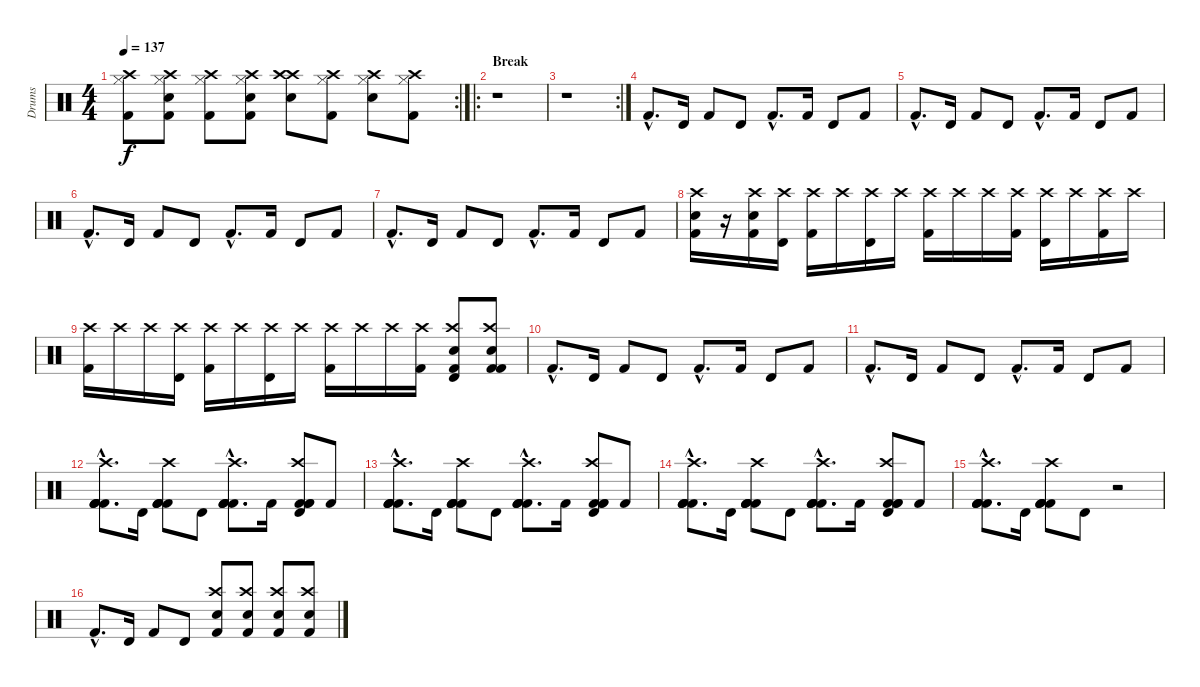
\track ("Drums" "Drums") {instrument percussion}
\staff {score}
\articulation defaults
\rc 2
\ts (4 4)
\tempo 137
\clef neutral
\ks c
("Kick (hit) 2" "Crash high (hit)" "Hi-Hat (closed)").8{dy f} ("Kick (hit) 2" "Crash high (hit)" "Snare (hit) 2" "Hi-Hat (closed)").8 ("Kick (hit) 2" "Crash high (hit)" "Hi-Hat (closed)").8 ("Kick (hit) 2" "Crash high (hit)" "Snare (hit) 2" "Hi-Hat (closed)").8 ("Crash high (hit)" "Crash high (hit)" "Snare (hit) 2").8 ("Kick (hit) 2" "Crash high (hit)" "Hi-Hat (closed)").8 ("Crash high (hit)" "Snare (hit) 2" "Hi-Hat (closed)").8 ("Kick (hit) 2" "Crash high (hit)" "Hi-Hat (closed)").8 |
\ro
\section ("" "Break")
r.1 |
\rc 2
r.1 |
"Kick (hit) 2"{hac}.8{d} "Timbale high (hit)".16 "Kick (hit) 2".8 "Timbale high (hit)".8 "Kick (hit) 2"{hac}.8{d} "Kick (hit) 2".16 "Timbale high (hit)".8 "Kick (hit) 2".8 |
"Kick (hit) 2"{hac}.8{d} "Timbale high (hit)".16 "Kick (hit) 2".8 "Timbale high (hit)".8 "Kick (hit) 2"{hac}.8{d} "Kick (hit) 2".16 "Timbale high (hit)".8 "Kick (hit) 2".8 |
"Kick (hit) 2"{hac}.8{d} "Timbale high (hit)".16 "Kick (hit) 2".8 "Timbale high (hit)".8 "Kick (hit) 2"{hac}.8{d} "Kick (hit) 2".16 "Timbale high (hit)".8 "Kick (hit) 2".8 |
"Kick (hit) 2"{hac}.8{d} "Timbale high (hit)".16 "Kick (hit) 2".8 "Timbale high (hit)".8 "Kick (hit) 2"{hac}.8{d} "Kick (hit) 2".16 "Timbale high (hit)".8 "Kick (hit) 2".8 |
("Crash high (hit)" "Snare (hit) 2" "Kick (hit) 2").16 r.16 ("Crash high (hit)" "Snare (hit) 2" "Kick (hit) 2").16 ("Crash high (hit)"{tr (49 64)} "Timbale high (hit)").16 ("Crash high (hit)"{tr (49 64)} "Kick (hit) 2").16 "Crash high (hit)"{tr (49 64)}.16 ("Crash high (hit)"{tr (49 64)} "Timbale high (hit)").16 "Crash high (hit)"{tr (49 64)}.16 ("Crash high (hit)"{tr (49 64)} "Kick (hit) 2").16 "Crash high (hit)"{tr (49 64)}.16 "Crash high (hit)"{tr (49 64)}.16 ("Crash high (hit)"{tr (49 64)} "Kick (hit) 2").16 ("Crash high (hit)"{tr (49 64)} "Timbale high (hit)").16 "Crash high (hit)"{tr (49 64)}.16 ("Crash high (hit)"{tr (49 64)} "Kick (hit) 2").16 "Crash high (hit)"{tr (49 64)}.16 |
("Crash high (hit)"{tr (49 64)} "Kick (hit) 2").16 "Crash high (hit)"{tr (49 64)}.16 "Crash high (hit)"{tr (49 64)}.16 ("Crash high (hit)"{tr (49 64)} "Timbale high (hit)").16 ("Crash high (hit)"{tr (49 64)} "Kick (hit) 2").16 "Crash high (hit)"{tr (49 64)}.16 ("Crash high (hit)"{tr (49 64)} "Timbale high (hit)").16 "Crash high (hit)"{tr (49 64)}.16 ("Crash high (hit)"{tr (49 64)} "Kick (hit) 2").16 "Crash high (hit)"{tr (49 64)}.16 "Crash high (hit)"{tr (49 64)}.16 ("Crash high (hit)"{tr (49 64)} "Kick (hit) 2").16 ("Crash high (hit)" "Kick (hit) 2" "Timbale high (hit)" "Snare (hit) 2").8 ("Crash high (hit)" "Kick (hit) 2" "Kick (hit) 2" "Snare (hit) 2").8 |
"Kick (hit) 2"{hac}.8{d} "Timbale high (hit)".16 "Kick (hit) 2".8 "Timbale high (hit)".8 "Kick (hit) 2"{hac}.8{d} "Kick (hit) 2".16 "Timbale high (hit)".8 "Kick (hit) 2".8 |
"Kick (hit) 2"{hac}.8{d} "Timbale high (hit)".16 "Kick (hit) 2".8 "Timbale high (hit)".8 "Kick (hit) 2"{hac}.8{d} "Kick (hit) 2".16 "Timbale high (hit)".8 "Kick (hit) 2".8 |
("Crash high (hit)"{hac} "Kick (hit) 2"{hac} "Kick (hit) 2"{hac} "Kick (hit) 2"{hac} "Kick (hit) 2"{hac}).8{d} "Timbale high (hit)".16 ("Crash high (hit)" "Kick (hit) 2" "Kick (hit) 2" "Kick (hit) 2" "Kick (hit) 2").8 "Timbale high (hit)".8 ("Crash high (hit)"{hac} "Kick (hit) 2"{hac} "Kick (hit) 2"{hac} "Kick (hit) 2"{hac} "Kick (hit) 2"{hac}).8{d} "Kick (hit) 2".16 ("Crash high (hit)" "Kick (hit) 2" "Timbale high (hit)" "Kick (hit) 2" "Kick (hit) 2").8 "Kick (hit) 2".8 |
("Crash high (hit)"{hac} "Kick (hit) 2"{hac} "Kick (hit) 2"{hac} "Kick (hit) 2"{hac} "Kick (hit) 2"{hac}).8{d} "Timbale high (hit)".16 ("Crash high (hit)" "Kick (hit) 2" "Kick (hit) 2" "Kick (hit) 2" "Kick (hit) 2").8 "Timbale high (hit)".8 ("Crash high (hit)"{hac} "Kick (hit) 2"{hac} "Kick (hit) 2"{hac} "Kick (hit) 2"{hac} "Kick (hit) 2"{hac}).8{d} "Kick (hit) 2".16 ("Crash high (hit)" "Kick (hit) 2" "Timbale high (hit)" "Kick (hit) 2" "Kick (hit) 2").8 "Kick (hit) 2".8 |
("Crash high (hit)"{hac} "Kick (hit) 2"{hac} "Kick (hit) 2"{hac} "Kick (hit) 2"{hac} "Kick (hit) 2"{hac}).8{d} "Timbale high (hit)".16 ("Crash high (hit)" "Kick (hit) 2" "Kick (hit) 2" "Kick (hit) 2" "Kick (hit) 2").8 "Timbale high (hit)".8 ("Crash high (hit)"{hac} "Kick (hit) 2"{hac} "Kick (hit) 2"{hac} "Kick (hit) 2"{hac} "Kick (hit) 2"{hac}).8{d} "Kick (hit) 2".16 ("Crash high (hit)" "Kick (hit) 2" "Timbale high (hit)" "Kick (hit) 2" "Kick (hit) 2").8 "Kick (hit) 2".8 |
("Crash high (hit)"{hac} "Kick (hit) 2"{hac} "Kick (hit) 2"{hac} "Kick (hit) 2"{hac} "Kick (hit) 2"{hac}).8{d} "Timbale high (hit)".16 ("Crash high (hit)" "Kick (hit) 2" "Kick (hit) 2" "Kick (hit) 2" "Kick (hit) 2").8 "Timbale high (hit)".8 r.2 |
"Kick (hit) 2"{hac}.8{d} "Timbale high (hit)".16 "Kick (hit) 2".8 "Timbale high (hit)".8 ("Snare (hit) 2" "Kick (hit) 2" "Crash high (hit)").8 ("Snare (hit) 2" "Kick (hit) 2" "Crash high (hit)").8 ("Snare (hit) 2" "Kick (hit) 2" "Crash high (hit)").8 ("Snare (hit) 2" "Kick (hit) 2" "Crash high (hit)").8
